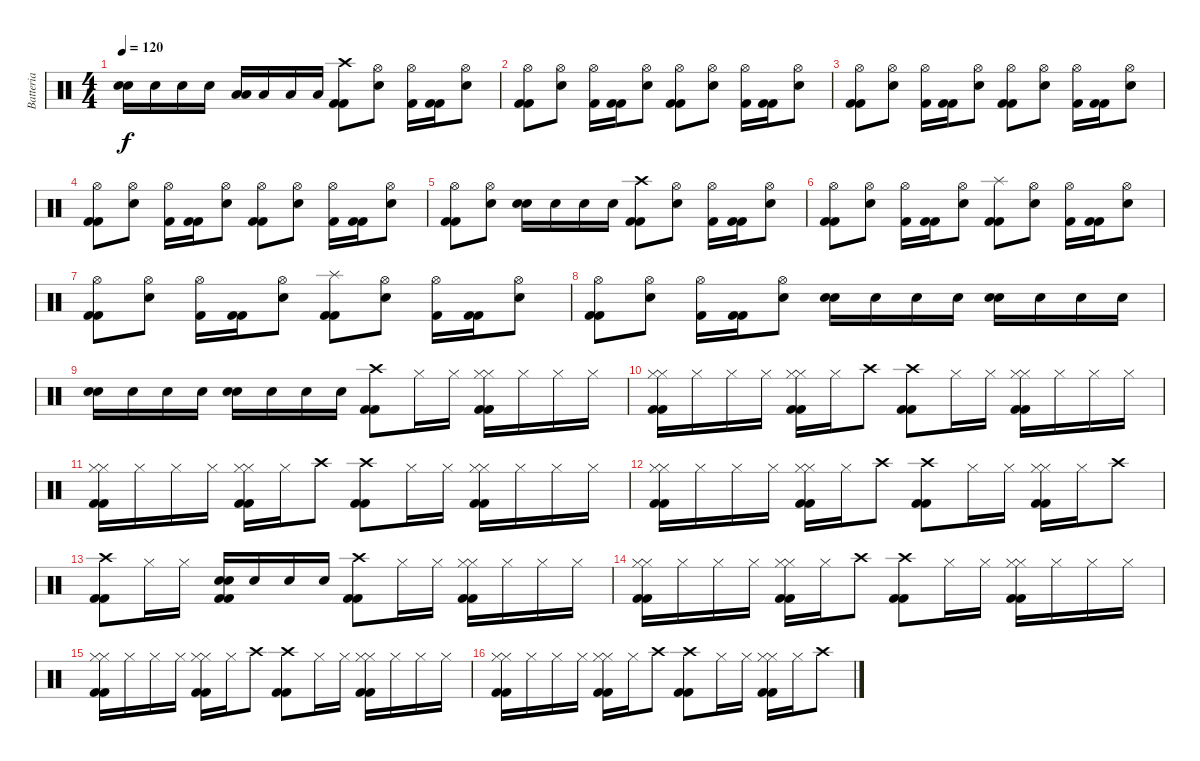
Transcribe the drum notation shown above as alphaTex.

\track ("Batteria" "Batteria") {instrument percussion}
\staff {score}
\articulation defaults
\ts (4 4)
\tempo 120
\clef neutral
\ks c
("Snare (hit) 2" "Snare (hit) 2").16{dy f} "Snare (hit) 2".16 "Snare (hit) 2".16 "Snare (hit) 2".16 ("Low Floor Tom (hit)" "Low Floor Tom (hit)").16 "Low Floor Tom (hit)".16 "Low Floor Tom (hit)".16 "Low Floor Tom (hit)".16 ("Kick (hit) 2" "Kick (hit) 2" "Crash high (hit)").8 ("Snare (hit) 2" "Hi-Hat (open)").8 ("Kick (hit) 2" "Hi-Hat (open)").16 ("Kick (hit) 2" "Kick (hit) 2").16 ("Snare (hit) 2" "Hi-Hat (open)").8 |
("Kick (hit) 2" "Kick (hit) 2" "Hi-Hat (open)").8 ("Snare (hit) 2" "Hi-Hat (open)").8 ("Kick (hit) 2" "Hi-Hat (open)").16 ("Kick (hit) 2" "Kick (hit) 2").16 ("Snare (hit) 2" "Hi-Hat (open)").8 ("Hi-Hat (open)" "Kick (hit) 2" "Kick (hit) 2").8 ("Snare (hit) 2" "Hi-Hat (open)").8 ("Kick (hit) 2" "Hi-Hat (open)").16 ("Kick (hit) 2" "Kick (hit) 2").16 ("Snare (hit) 2" "Hi-Hat (open)").8 |
("Hi-Hat (open)" "Kick (hit) 2" "Kick (hit) 2").8 ("Snare (hit) 2" "Hi-Hat (open)").8 ("Kick (hit) 2" "Hi-Hat (open)").16 ("Kick (hit) 2" "Kick (hit) 2").16 ("Snare (hit) 2" "Hi-Hat (open)").8 ("Hi-Hat (open)" "Kick (hit) 2" "Kick (hit) 2").8 ("Snare (hit) 2" "Hi-Hat (open)").8 ("Kick (hit) 2" "Hi-Hat (open)").16 ("Kick (hit) 2" "Kick (hit) 2").16 ("Snare (hit) 2" "Hi-Hat (open)").8 |
("Hi-Hat (open)" "Kick (hit) 2" "Kick (hit) 2").8 ("Snare (hit) 2" "Hi-Hat (open)").8 ("Kick (hit) 2" "Hi-Hat (open)").16 ("Kick (hit) 2" "Kick (hit) 2").16 ("Snare (hit) 2" "Hi-Hat (open)").8 ("Kick (hit) 2" "Kick (hit) 2" "Hi-Hat (open)").8 ("Snare (hit) 2" "Hi-Hat (open)").8 ("Kick (hit) 2" "Hi-Hat (open)").16 ("Kick (hit) 2" "Kick (hit) 2").16 ("Snare (hit) 2" "Hi-Hat (open)").8 |
("Hi-Hat (open)" "Kick (hit) 2" "Kick (hit) 2").8 ("Snare (hit) 2" "Hi-Hat (open)").8 ("Snare (hit) 2" "Snare (hit) 2").16 "Snare (hit) 2".16 "Snare (hit) 2".16 "Snare (hit) 2".16 ("Kick (hit) 2" "Kick (hit) 2" "Crash high (hit)").8 ("Snare (hit) 2" "Hi-Hat (open)").8 ("Kick (hit) 2" "Hi-Hat (open)").16 ("Kick (hit) 2" "Kick (hit) 2").16 ("Snare (hit) 2" "Hi-Hat (open)").8 |
("Hi-Hat (open)" "Kick (hit) 2" "Kick (hit) 2").8 ("Snare (hit) 2" "Hi-Hat (open)").8 ("Kick (hit) 2" "Hi-Hat (open)").16 ("Kick (hit) 2" "Kick (hit) 2").16 ("Snare (hit) 2" "Hi-Hat (open)").8 ("Kick (hit) 2" "Kick (hit) 2" "Splash (hit)").8 ("Snare (hit) 2" "Hi-Hat (open)").8 ("Kick (hit) 2" "Hi-Hat (open)").16 ("Kick (hit) 2" "Kick (hit) 2").16 ("Snare (hit) 2" "Hi-Hat (open)").8 |
("Hi-Hat (open)" "Kick (hit) 2" "Kick (hit) 2").8 ("Snare (hit) 2" "Hi-Hat (open)").8 ("Kick (hit) 2" "Hi-Hat (open)").16 ("Kick (hit) 2" "Kick (hit) 2").16 ("Snare (hit) 2" "Hi-Hat (open)").8 ("Kick (hit) 2" "Kick (hit) 2" "Splash (hit)").8 ("Snare (hit) 2" "Hi-Hat (open)").8 ("Kick (hit) 2" "Hi-Hat (open)").16 ("Kick (hit) 2" "Kick (hit) 2").16 ("Snare (hit) 2" "Hi-Hat (open)").8 |
("Hi-Hat (open)" "Kick (hit) 2" "Kick (hit) 2").8 ("Snare (hit) 2" "Hi-Hat (open)").8 ("Kick (hit) 2" "Hi-Hat (open)").16 ("Kick (hit) 2" "Kick (hit) 2").16 ("Snare (hit) 2" "Hi-Hat (open)").8 ("Snare (hit) 2" "Snare (hit) 2").16 "Snare (hit) 2".16 "Snare (hit) 2".16 "Snare (hit) 2".16 ("Snare (hit) 2" "Snare (hit) 2").16 "Snare (hit) 2".16 "Snare (hit) 2".16 "Snare (hit) 2".16 |
("Snare (hit) 2" "Snare (hit) 2").16 "Snare (hit) 2".16 "Snare (hit) 2".16 "Snare (hit) 2".16 ("Snare (hit) 2" "Snare (hit) 2").16 "Snare (hit) 2".16 "Snare (hit) 2".16 "Snare (hit) 2".16 ("Kick (hit) 2" "Kick (hit) 2" "Crash high (hit)").8 "Hi-Hat (closed)".16 "Hi-Hat (closed)".16 ("Kick (hit) 2" "Hi-Hat (closed)" "Hi-Hat (closed)" "Kick (hit) 2").16 "Hi-Hat (closed)".16 "Hi-Hat (closed)".16 "Hi-Hat (closed)".16 |
("Kick (hit) 2" "Hi-Hat (closed)" "Hi-Hat (closed)" "Kick (hit) 2").16 "Hi-Hat (closed)".16 "Hi-Hat (closed)".16 "Hi-Hat (closed)".16 ("Kick (hit) 2" "Hi-Hat (closed)" "Hi-Hat (closed)" "Kick (hit) 2").16 "Hi-Hat (closed)".16 "Crash high (hit)".8 ("Kick (hit) 2" "Kick (hit) 2" "Crash high (hit)").8 "Hi-Hat (closed)".16 "Hi-Hat (closed)".16 ("Kick (hit) 2" "Hi-Hat (closed)" "Hi-Hat (closed)" "Kick (hit) 2").16 "Hi-Hat (closed)".16 "Hi-Hat (closed)".16 "Hi-Hat (closed)".16 |
("Kick (hit) 2" "Hi-Hat (closed)" "Hi-Hat (closed)" "Kick (hit) 2").16 "Hi-Hat (closed)".16 "Hi-Hat (closed)".16 "Hi-Hat (closed)".16 ("Kick (hit) 2" "Hi-Hat (closed)" "Hi-Hat (closed)" "Kick (hit) 2").16 "Hi-Hat (closed)".16 "Crash high (hit)".8 ("Kick (hit) 2" "Kick (hit) 2" "Crash high (hit)").8 "Hi-Hat (closed)".16 "Hi-Hat (closed)".16 ("Kick (hit) 2" "Hi-Hat (closed)" "Hi-Hat (closed)" "Kick (hit) 2").16 "Hi-Hat (closed)".16 "Hi-Hat (closed)".16 "Hi-Hat (closed)".16 |
("Kick (hit) 2" "Hi-Hat (closed)" "Hi-Hat (closed)" "Kick (hit) 2").16 "Hi-Hat (closed)".16 "Hi-Hat (closed)".16 "Hi-Hat (closed)".16 ("Kick (hit) 2" "Hi-Hat (closed)" "Hi-Hat (closed)" "Kick (hit) 2").16 "Hi-Hat (closed)".16 "Crash high (hit)".8 ("Kick (hit) 2" "Kick (hit) 2" "Crash high (hit)").8 "Hi-Hat (closed)".16 "Hi-Hat (closed)".16 ("Kick (hit) 2" "Hi-Hat (closed)" "Hi-Hat (closed)" "Kick (hit) 2").16 "Hi-Hat (closed)".16 "Crash high (hit)".8 |
("Kick (hit) 2" "Kick (hit) 2" "Crash high (hit)").8 "Hi-Hat (closed)".16 "Hi-Hat (closed)".16 ("Kick (hit) 2" "Kick (hit) 2" "Snare (hit) 2" "Snare (hit) 2").16 "Snare (hit) 2".16 "Snare (hit) 2".16 "Snare (hit) 2".16 ("Crash high (hit)" "Kick (hit) 2" "Kick (hit) 2").8 "Hi-Hat (closed)".16 "Hi-Hat (closed)".16 ("Kick (hit) 2" "Hi-Hat (closed)" "Hi-Hat (closed)" "Kick (hit) 2").16 "Hi-Hat (closed)".16 "Hi-Hat (closed)".16 "Hi-Hat (closed)".16 |
("Kick (hit) 2" "Hi-Hat (closed)" "Hi-Hat (closed)" "Kick (hit) 2").16 "Hi-Hat (closed)".16 "Hi-Hat (closed)".16 "Hi-Hat (closed)".16 ("Kick (hit) 2" "Hi-Hat (closed)" "Hi-Hat (closed)" "Kick (hit) 2").16 "Hi-Hat (closed)".16 "Crash high (hit)".8 ("Kick (hit) 2" "Kick (hit) 2" "Crash high (hit)").8 "Hi-Hat (closed)".16 "Hi-Hat (closed)".16 ("Kick (hit) 2" "Hi-Hat (closed)" "Hi-Hat (closed)" "Kick (hit) 2").16 "Hi-Hat (closed)".16 "Hi-Hat (closed)".16 "Hi-Hat (closed)".16 |
("Kick (hit) 2" "Hi-Hat (closed)" "Hi-Hat (closed)" "Kick (hit) 2").16 "Hi-Hat (closed)".16 "Hi-Hat (closed)".16 "Hi-Hat (closed)".16 ("Kick (hit) 2" "Hi-Hat (closed)" "Hi-Hat (closed)" "Kick (hit) 2").16 "Hi-Hat (closed)".16 "Crash high (hit)".8 ("Kick (hit) 2" "Kick (hit) 2" "Crash high (hit)").8 "Hi-Hat (closed)".16 "Hi-Hat (closed)".16 ("Kick (hit) 2" "Hi-Hat (closed)" "Hi-Hat (closed)" "Kick (hit) 2").16 "Hi-Hat (closed)".16 "Hi-Hat (closed)".16 "Hi-Hat (closed)".16 |
("Kick (hit) 2" "Hi-Hat (closed)" "Hi-Hat (closed)" "Kick (hit) 2").16 "Hi-Hat (closed)".16 "Hi-Hat (closed)".16 "Hi-Hat (closed)".16 ("Kick (hit) 2" "Hi-Hat (closed)" "Hi-Hat (closed)" "Kick (hit) 2").16 "Hi-Hat (closed)".16 "Crash high (hit)".8 ("Kick (hit) 2" "Kick (hit) 2" "Crash high (hit)").8 "Hi-Hat (closed)".16 "Hi-Hat (closed)".16 ("Kick (hit) 2" "Hi-Hat (closed)" "Hi-Hat (closed)" "Kick (hit) 2").16 "Hi-Hat (closed)".16 "Crash high (hit)".8
